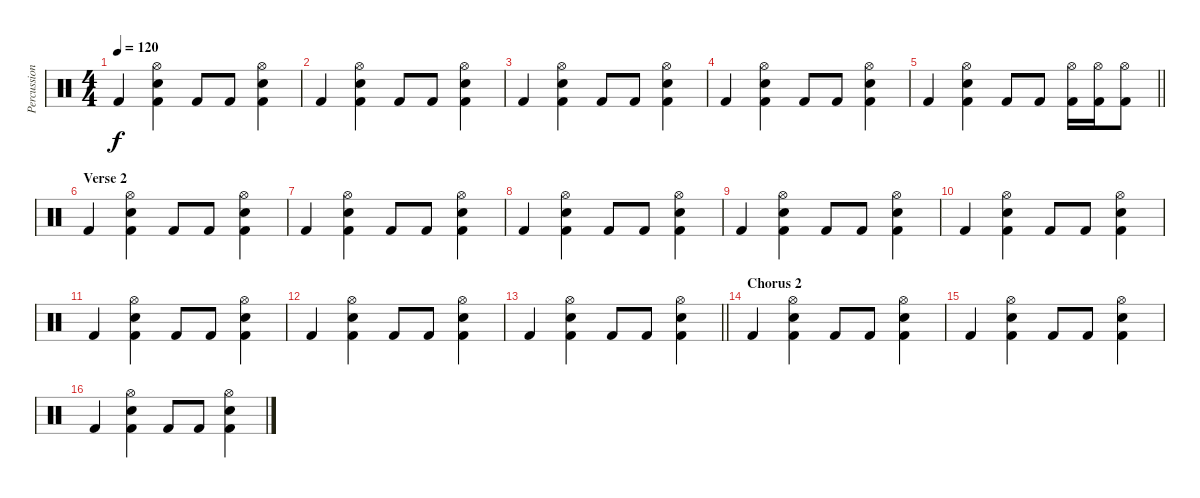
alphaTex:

\track ("Percussion" "Percussion") {instrument percussion}
\staff {score}
\articulation defaults
\ts (4 4)
\tempo 120
\clef neutral
\ks c "Kick (hit) 2".4{dy f}
("Electric Snare (hit)" "Hi-Hat (open)" "Kick (hit) 2").4 "Kick (hit) 2".8 "Kick (hit) 2".8 ("Electric Snare (hit)" "Hi-Hat (open)" "Kick (hit) 2").4 |
"Kick (hit) 2".4 ("Electric Snare (hit)" "Hi-Hat (open)" "Kick (hit) 2").4 "Kick (hit) 2".8 "Kick (hit) 2".8 ("Electric Snare (hit)" "Hi-Hat (open)" "Kick (hit) 2").4 |
"Kick (hit) 2".4 ("Electric Snare (hit)" "Hi-Hat (open)" "Kick (hit) 2").4 "Kick (hit) 2".8 "Kick (hit) 2".8 ("Electric Snare (hit)" "Hi-Hat (open)" "Kick (hit) 2").4 |
"Kick (hit) 2".4 ("Electric Snare (hit)" "Hi-Hat (open)" "Kick (hit) 2").4 "Kick (hit) 2".8 "Kick (hit) 2".8 ("Electric Snare (hit)" "Hi-Hat (open)" "Kick (hit) 2").4 |
\barLineRight lightlight "Kick (hit) 2".4
("Electric Snare (hit)" "Hi-Hat (open)" "Kick (hit) 2").4 "Kick (hit) 2".8 "Kick (hit) 2".8 ("Hi-Hat (open)" "Kick (hit) 2").16 ("Hi-Hat (open)" "Kick (hit) 2").16 ("Hi-Hat (open)" "Kick (hit) 2").8 |
\section ("" "Verse 2")
"Kick (hit) 2".4 ("Electric Snare (hit)" "Hi-Hat (open)" "Kick (hit) 2").4 "Kick (hit) 2".8 "Kick (hit) 2".8 ("Electric Snare (hit)" "Hi-Hat (open)" "Kick (hit) 2").4 |
"Kick (hit) 2".4 ("Electric Snare (hit)" "Hi-Hat (open)" "Kick (hit) 2").4 "Kick (hit) 2".8 "Kick (hit) 2".8 ("Electric Snare (hit)" "Hi-Hat (open)" "Kick (hit) 2").4 |
"Kick (hit) 2".4 ("Electric Snare (hit)" "Hi-Hat (open)" "Kick (hit) 2").4 "Kick (hit) 2".8 "Kick (hit) 2".8 ("Electric Snare (hit)" "Hi-Hat (open)" "Kick (hit) 2").4 |
"Kick (hit) 2".4 ("Electric Snare (hit)" "Hi-Hat (open)" "Kick (hit) 2").4 "Kick (hit) 2".8 "Kick (hit) 2".8 ("Electric Snare (hit)" "Hi-Hat (open)" "Kick (hit) 2").4 |
"Kick (hit) 2".4 ("Electric Snare (hit)" "Hi-Hat (open)" "Kick (hit) 2").4 "Kick (hit) 2".8 "Kick (hit) 2".8 ("Electric Snare (hit)" "Hi-Hat (open)" "Kick (hit) 2").4 |
"Kick (hit) 2".4 ("Electric Snare (hit)" "Hi-Hat (open)" "Kick (hit) 2").4 "Kick (hit) 2".8 "Kick (hit) 2".8 ("Electric Snare (hit)" "Hi-Hat (open)" "Kick (hit) 2").4 |
"Kick (hit) 2".4 ("Electric Snare (hit)" "Hi-Hat (open)" "Kick (hit) 2").4 "Kick (hit) 2".8 "Kick (hit) 2".8 ("Electric Snare (hit)" "Hi-Hat (open)" "Kick (hit) 2").4 |
\barLineRight lightlight "Kick (hit) 2".4
("Electric Snare (hit)" "Hi-Hat (open)" "Kick (hit) 2").4 "Kick (hit) 2".8 "Kick (hit) 2".8 ("Electric Snare (hit)" "Hi-Hat (open)" "Kick (hit) 2").4 |
\section ("" "Chorus 2")
"Kick (hit) 2".4 ("Electric Snare (hit)" "Hi-Hat (open)" "Kick (hit) 2").4 "Kick (hit) 2".8 "Kick (hit) 2".8 ("Electric Snare (hit)" "Hi-Hat (open)" "Kick (hit) 2").4 |
"Kick (hit) 2".4 ("Electric Snare (hit)" "Hi-Hat (open)" "Kick (hit) 2").4 "Kick (hit) 2".8 "Kick (hit) 2".8 ("Electric Snare (hit)" "Hi-Hat (open)" "Kick (hit) 2").4 |
"Kick (hit) 2".4 ("Electric Snare (hit)" "Hi-Hat (open)" "Kick (hit) 2").4 "Kick (hit) 2".8 "Kick (hit) 2".8 ("Electric Snare (hit)" "Hi-Hat (open)" "Kick (hit) 2").4
